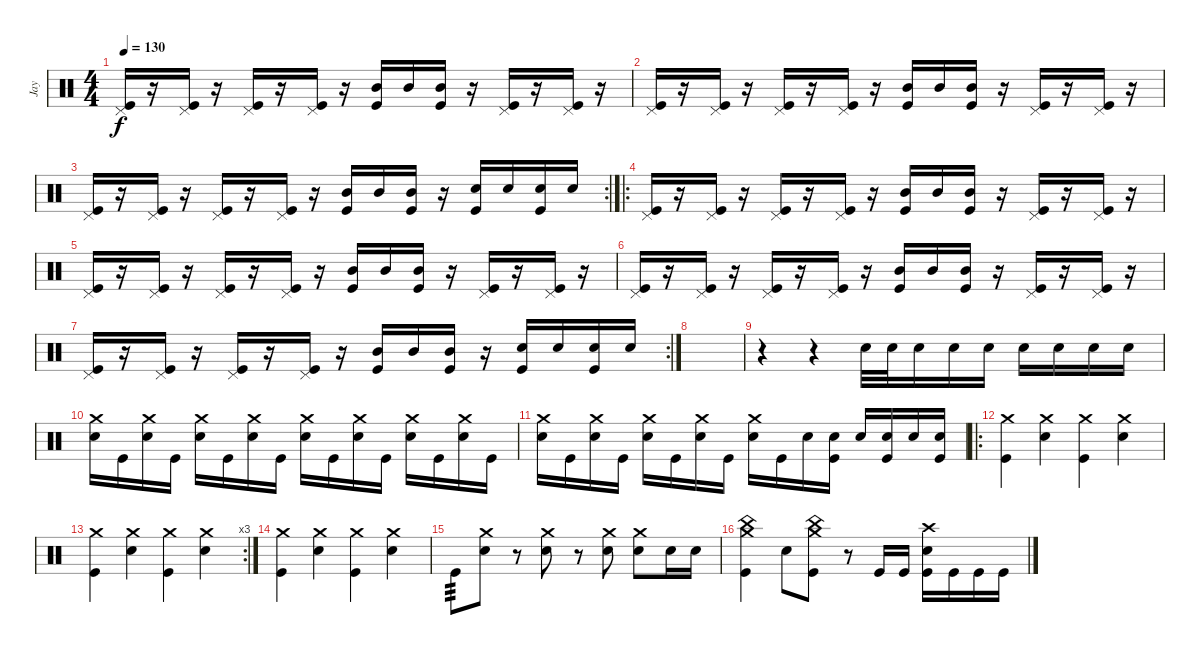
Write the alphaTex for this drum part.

\track ("Jay" "Jay") {instrument percussion}
\staff {score}
\articulation defaults
\ts (4 4)
\tempo 130
\clef neutral
\ks c
("Pedal Hi-Hat (hit)" "Kick (hit)").16{dy f} r.16 ("Pedal Hi-Hat (hit)" "Kick (hit)").16 r.16 ("Pedal Hi-Hat (hit)" "Kick (hit)").16 r.16 ("Pedal Hi-Hat (hit)" "Kick (hit)").16 r.16 ("Mid Tom (hit)" "Kick (hit)").16 "Mid Tom (hit)".16 ("Mid Tom (hit)" "Kick (hit)").16 r.16 ("Pedal Hi-Hat (hit)" "Kick (hit)").16 r.16 ("Pedal Hi-Hat (hit)" "Kick (hit)").16 r.16 |
("Pedal Hi-Hat (hit)" "Kick (hit)").16 r.16 ("Pedal Hi-Hat (hit)" "Kick (hit)").16 r.16 ("Pedal Hi-Hat (hit)" "Kick (hit)").16 r.16 ("Pedal Hi-Hat (hit)" "Kick (hit)").16 r.16 ("Mid Tom (hit)" "Kick (hit)").16 "Mid Tom (hit)".16 ("Mid Tom (hit)" "Kick (hit)").16 r.16 ("Pedal Hi-Hat (hit)" "Kick (hit)").16 r.16 ("Pedal Hi-Hat (hit)" "Kick (hit)").16 r.16 |
\rc 2
("Pedal Hi-Hat (hit)" "Kick (hit)").16 r.16 ("Pedal Hi-Hat (hit)" "Kick (hit)").16 r.16 ("Pedal Hi-Hat (hit)" "Kick (hit)").16 r.16 ("Pedal Hi-Hat (hit)" "Kick (hit)").16 r.16 ("Mid Tom (hit)" "Kick (hit)").16 "Mid Tom (hit)".16 ("Mid Tom (hit)" "Kick (hit)").16 r.16 ("Snare (hit) 2" "Kick (hit)").16 "Snare (hit) 2".16 ("Snare (hit) 2" "Kick (hit)").16 "Snare (hit) 2".16 |
\ro
("Pedal Hi-Hat (hit)" "Kick (hit)").16 r.16 ("Pedal Hi-Hat (hit)" "Kick (hit)").16 r.16 ("Pedal Hi-Hat (hit)" "Kick (hit)").16 r.16 ("Pedal Hi-Hat (hit)" "Kick (hit)").16 r.16 ("Mid Tom (hit)" "Kick (hit)").16 "Mid Tom (hit)".16 ("Mid Tom (hit)" "Kick (hit)").16 r.16 ("Pedal Hi-Hat (hit)" "Kick (hit)").16 r.16 ("Pedal Hi-Hat (hit)" "Kick (hit)").16 r.16 |
("Pedal Hi-Hat (hit)" "Kick (hit)").16 r.16 ("Pedal Hi-Hat (hit)" "Kick (hit)").16 r.16 ("Pedal Hi-Hat (hit)" "Kick (hit)").16 r.16 ("Pedal Hi-Hat (hit)" "Kick (hit)").16 r.16 ("Mid Tom (hit)" "Kick (hit)").16 "Mid Tom (hit)".16 ("Mid Tom (hit)" "Kick (hit)").16 r.16 ("Pedal Hi-Hat (hit)" "Kick (hit)").16 r.16 ("Pedal Hi-Hat (hit)" "Kick (hit)").16 r.16 |
("Pedal Hi-Hat (hit)" "Kick (hit)").16 r.16 ("Pedal Hi-Hat (hit)" "Kick (hit)").16 r.16 ("Pedal Hi-Hat (hit)" "Kick (hit)").16 r.16 ("Pedal Hi-Hat (hit)" "Kick (hit)").16 r.16 ("Mid Tom (hit)" "Kick (hit)").16 "Mid Tom (hit)".16 ("Mid Tom (hit)" "Kick (hit)").16 r.16 ("Pedal Hi-Hat (hit)" "Kick (hit)").16 r.16 ("Pedal Hi-Hat (hit)" "Kick (hit)").16 r.16 |
\rc 2
("Pedal Hi-Hat (hit)" "Kick (hit)").16 r.16 ("Pedal Hi-Hat (hit)" "Kick (hit)").16 r.16 ("Pedal Hi-Hat (hit)" "Kick (hit)").16 r.16 ("Pedal Hi-Hat (hit)" "Kick (hit)").16 r.16 ("Mid Tom (hit)" "Kick (hit)").16 "Mid Tom (hit)".16 ("Mid Tom (hit)" "Kick (hit)").16 r.16 ("Snare (hit) 2" "Kick (hit)").16 "Snare (hit) 2".16 ("Snare (hit) 2" "Kick (hit)").16 "Snare (hit) 2".16 |
|
r.4 r.4 "Snare (hit) 2".32 "Snare (hit) 2".32 "Snare (hit) 2".16 "Snare (hit) 2".16 "Snare (hit) 2".16 "Snare (hit) 2".16 "Snare (hit) 2".16 "Snare (hit) 2".16 "Snare (hit) 2".16 |
("Crash medium (hit)" "Snare (hit) 2").16 "Kick (hit)".16 ("Crash medium (hit)" "Snare (hit) 2").16 "Kick (hit)".16 ("Crash medium (hit)" "Snare (hit) 2").16 "Kick (hit)".16 ("Crash medium (hit)" "Snare (hit) 2").16 "Kick (hit)".16 ("Crash medium (hit)" "Snare (hit) 2").16 "Kick (hit)".16 ("Crash medium (hit)" "Snare (hit) 2").16 "Kick (hit)".16 ("Crash medium (hit)" "Snare (hit) 2").16 "Kick (hit)".16 ("Crash medium (hit)" "Snare (hit) 2").16 "Kick (hit)".16 |
("Crash medium (hit)" "Snare (hit) 2").16 "Kick (hit)".16 ("Crash medium (hit)" "Snare (hit) 2").16 "Kick (hit)".16 ("Crash medium (hit)" "Snare (hit) 2").16 "Kick (hit)".16 ("Crash medium (hit)" "Snare (hit) 2").16 "Kick (hit)".16 ("Crash medium (hit)" "Snare (hit) 2").16 "Kick (hit)".16 "Snare (hit) 2".16 ("Snare (hit) 2" "Kick (hit)").16 "Snare (hit) 2".16 ("Snare (hit) 2" "Kick (hit)").16 "Snare (hit) 2".16 ("Snare (hit) 2" "Kick (hit)").16 |
\ro
("Crash medium (hit)" "Kick (hit)").4 ("Crash medium (hit)" "Snare (hit) 2").4 ("Crash medium (hit)" "Kick (hit)").4 ("Crash medium (hit)" "Snare (hit) 2").4 |
\rc 3
("Crash medium (hit)" "Kick (hit)").4 ("Crash medium (hit)" "Snare (hit) 2").4 ("Crash medium (hit)" "Kick (hit)").4 ("Crash medium (hit)" "Snare (hit) 2").4 |
("Crash medium (hit)" "Kick (hit)").4 ("Crash medium (hit)" "Snare (hit) 2").4 ("Crash medium (hit)" "Kick (hit)").4 ("Crash medium (hit)" "Snare (hit) 2").4 |
"Kick (hit)".8{tp 3} ("Crash medium (hit)" "Snare (hit) 2").8 r.8 ("Crash medium (hit)" "Snare (hit) 2").8 r.8 ("Crash medium (hit)" "Snare (hit) 2").8 ("Crash medium (hit)" "Snare (hit) 2").8 "Snare (hit) 2".16 "Snare (hit) 2".16 |
("Crash medium (hit)" "China (hit)" "Kick (hit)").4 "Snare (hit) 2".8 ("China (hit)" "Crash medium (hit)" "Kick (hit)").8 r.8 "Kick (hit)".16 "Kick (hit)".16 ("Crash high (hit)" "Snare (hit) 2" "Kick (hit)").16 "Kick (hit)".16 "Kick (hit)".16 "Kick (hit)".16
